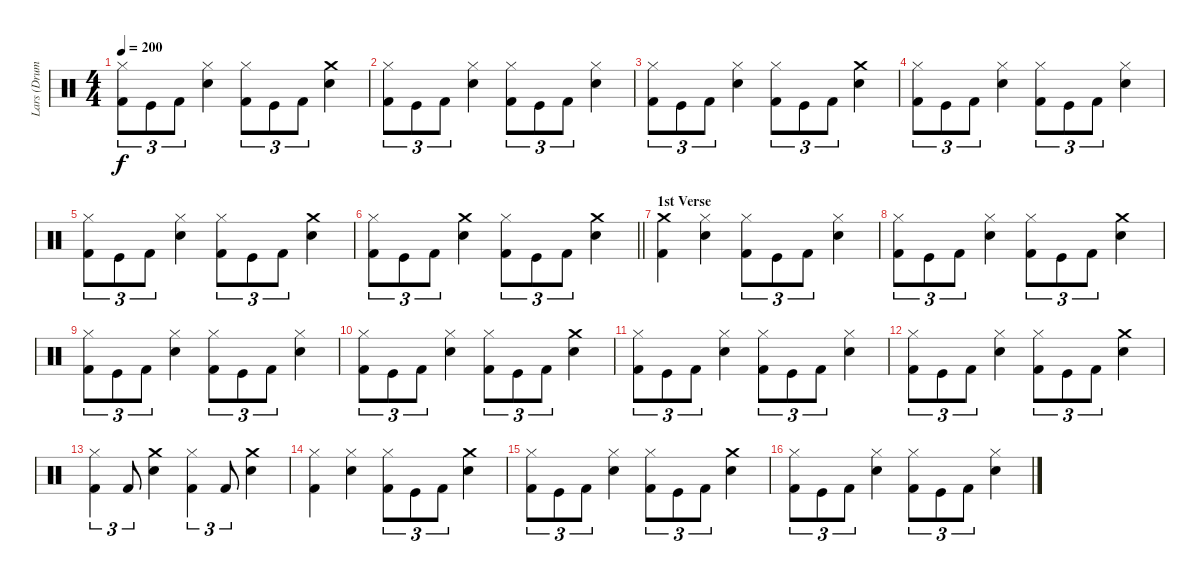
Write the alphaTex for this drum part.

\track ("Lars (Drums)" "Lars (Drum") {instrument percussion}
\staff {score}
\articulation defaults
\ts (4 4)
\tempo 200
\clef neutral
\ks c
("Hi-Hat (closed)" "Kick (hit) 2").8{tu (3 2) dy f} "Kick (hit)".8{tu (3 2)} "Kick (hit) 2".8{tu (3 2)} ("Snare (hit) 2" "Hi-Hat (closed)").4 ("Hi-Hat (closed)" "Kick (hit) 2").8{tu (3 2)} "Kick (hit)".8{tu (3 2)} "Kick (hit) 2".8{tu (3 2)} ("Crash medium (hit)" "Snare (hit) 2").4 |
("Hi-Hat (closed)" "Kick (hit) 2").8{tu (3 2)} "Kick (hit)".8{tu (3 2)} "Kick (hit) 2".8{tu (3 2)} ("Snare (hit) 2" "Hi-Hat (closed)").4 ("Hi-Hat (closed)" "Kick (hit) 2").8{tu (3 2)} "Kick (hit)".8{tu (3 2)} "Kick (hit) 2".8{tu (3 2)} ("Hi-Hat (closed)" "Snare (hit) 2").4 |
("Hi-Hat (closed)" "Kick (hit) 2").8{tu (3 2)} "Kick (hit)".8{tu (3 2)} "Kick (hit) 2".8{tu (3 2)} ("Snare (hit) 2" "Hi-Hat (closed)").4 ("Hi-Hat (closed)" "Kick (hit) 2").8{tu (3 2)} "Kick (hit)".8{tu (3 2)} "Kick (hit) 2".8{tu (3 2)} ("Crash medium (hit)" "Snare (hit) 2").4 |
("Hi-Hat (closed)" "Kick (hit) 2").8{tu (3 2)} "Kick (hit)".8{tu (3 2)} "Kick (hit) 2".8{tu (3 2)} ("Snare (hit) 2" "Hi-Hat (closed)").4 ("Hi-Hat (closed)" "Kick (hit) 2").8{tu (3 2)} "Kick (hit)".8{tu (3 2)} "Kick (hit) 2".8{tu (3 2)} ("Hi-Hat (closed)" "Snare (hit) 2").4 |
("Hi-Hat (closed)" "Kick (hit) 2").8{tu (3 2)} "Kick (hit)".8{tu (3 2)} "Kick (hit) 2".8{tu (3 2)} ("Snare (hit) 2" "Hi-Hat (closed)").4 ("Hi-Hat (closed)" "Kick (hit) 2").8{tu (3 2)} "Kick (hit)".8{tu (3 2)} "Kick (hit) 2".8{tu (3 2)} ("Crash medium (hit)" "Snare (hit) 2").4 |
\barLineRight lightlight
("Hi-Hat (closed)" "Kick (hit) 2").8{tu (3 2)} "Kick (hit)".8{tu (3 2)} "Kick (hit) 2".8{tu (3 2)} ("Crash medium (hit)" "Snare (hit) 2").4 ("Hi-Hat (closed)" "Kick (hit) 2").8{tu (3 2)} "Kick (hit)".8{tu (3 2)} "Kick (hit) 2".8{tu (3 2)} ("Crash medium (hit)" "Snare (hit) 2").4 |
\section ("" "1st Verse")
("Crash medium (hit)" "Kick (hit) 2").4 ("Snare (hit) 2" "Hi-Hat (closed)").4 ("Hi-Hat (closed)" "Kick (hit) 2").8{tu (3 2)} "Kick (hit)".8{tu (3 2)} "Kick (hit) 2".8{tu (3 2)} ("Hi-Hat (closed)" "Snare (hit) 2").4 |
("Hi-Hat (closed)" "Kick (hit) 2").8{tu (3 2)} "Kick (hit)".8{tu (3 2)} "Kick (hit) 2".8{tu (3 2)} ("Snare (hit) 2" "Hi-Hat (closed)").4 ("Hi-Hat (closed)" "Kick (hit) 2").8{tu (3 2)} "Kick (hit)".8{tu (3 2)} "Kick (hit) 2".8{tu (3 2)} ("Crash medium (hit)" "Snare (hit) 2").4 |
("Hi-Hat (closed)" "Kick (hit) 2").8{tu (3 2)} "Kick (hit)".8{tu (3 2)} "Kick (hit) 2".8{tu (3 2)} ("Snare (hit) 2" "Hi-Hat (closed)").4 ("Hi-Hat (closed)" "Kick (hit) 2").8{tu (3 2)} "Kick (hit)".8{tu (3 2)} "Kick (hit) 2".8{tu (3 2)} ("Hi-Hat (closed)" "Snare (hit) 2").4 |
("Hi-Hat (closed)" "Kick (hit) 2").8{tu (3 2)} "Kick (hit)".8{tu (3 2)} "Kick (hit) 2".8{tu (3 2)} ("Snare (hit) 2" "Hi-Hat (closed)").4 ("Hi-Hat (closed)" "Kick (hit) 2").8{tu (3 2)} "Kick (hit)".8{tu (3 2)} "Kick (hit) 2".8{tu (3 2)} ("Crash medium (hit)" "Snare (hit) 2").4 |
("Hi-Hat (closed)" "Kick (hit) 2").8{tu (3 2)} "Kick (hit)".8{tu (3 2)} "Kick (hit) 2".8{tu (3 2)} ("Snare (hit) 2" "Hi-Hat (closed)").4 ("Hi-Hat (closed)" "Kick (hit) 2").8{tu (3 2)} "Kick (hit)".8{tu (3 2)} "Kick (hit) 2".8{tu (3 2)} ("Hi-Hat (closed)" "Snare (hit) 2").4 |
("Hi-Hat (closed)" "Kick (hit) 2").8{tu (3 2)} "Kick (hit)".8{tu (3 2)} "Kick (hit) 2".8{tu (3 2)} ("Snare (hit) 2" "Hi-Hat (closed)").4 ("Hi-Hat (closed)" "Kick (hit) 2").8{tu (3 2)} "Kick (hit)".8{tu (3 2)} "Kick (hit) 2".8{tu (3 2)} ("Crash medium (hit)" "Snare (hit) 2").4 |
("Kick (hit) 2" "Hi-Hat (closed)").4{tu (3 2)} "Kick (hit) 2".8{tu (3 2)} ("Crash medium (hit)" "Snare (hit) 2").4 ("Kick (hit) 2" "Hi-Hat (closed)").4{tu (3 2)} "Kick (hit) 2".8{tu (3 2)} ("Crash medium (hit)" "Snare (hit) 2").4 |
("Hi-Hat (closed)" "Kick (hit) 2").4 ("Snare (hit) 2" "Hi-Hat (closed)").4 ("Hi-Hat (closed)" "Kick (hit) 2").8{tu (3 2)} "Kick (hit)".8{tu (3 2)} "Kick (hit) 2".8{tu (3 2)} ("Crash medium (hit)" "Snare (hit) 2").4 |
("Hi-Hat (closed)" "Kick (hit) 2").8{tu (3 2)} "Kick (hit)".8{tu (3 2)} "Kick (hit) 2".8{tu (3 2)} ("Snare (hit) 2" "Hi-Hat (closed)").4 ("Hi-Hat (closed)" "Kick (hit) 2").8{tu (3 2)} "Kick (hit)".8{tu (3 2)} "Kick (hit) 2".8{tu (3 2)} ("Crash medium (hit)" "Snare (hit) 2").4 |
("Hi-Hat (closed)" "Kick (hit) 2").8{tu (3 2)} "Kick (hit)".8{tu (3 2)} "Kick (hit) 2".8{tu (3 2)} ("Snare (hit) 2" "Hi-Hat (closed)").4 ("Hi-Hat (closed)" "Kick (hit) 2").8{tu (3 2)} "Kick (hit)".8{tu (3 2)} "Kick (hit) 2".8{tu (3 2)} ("Hi-Hat (closed)" "Snare (hit) 2").4
